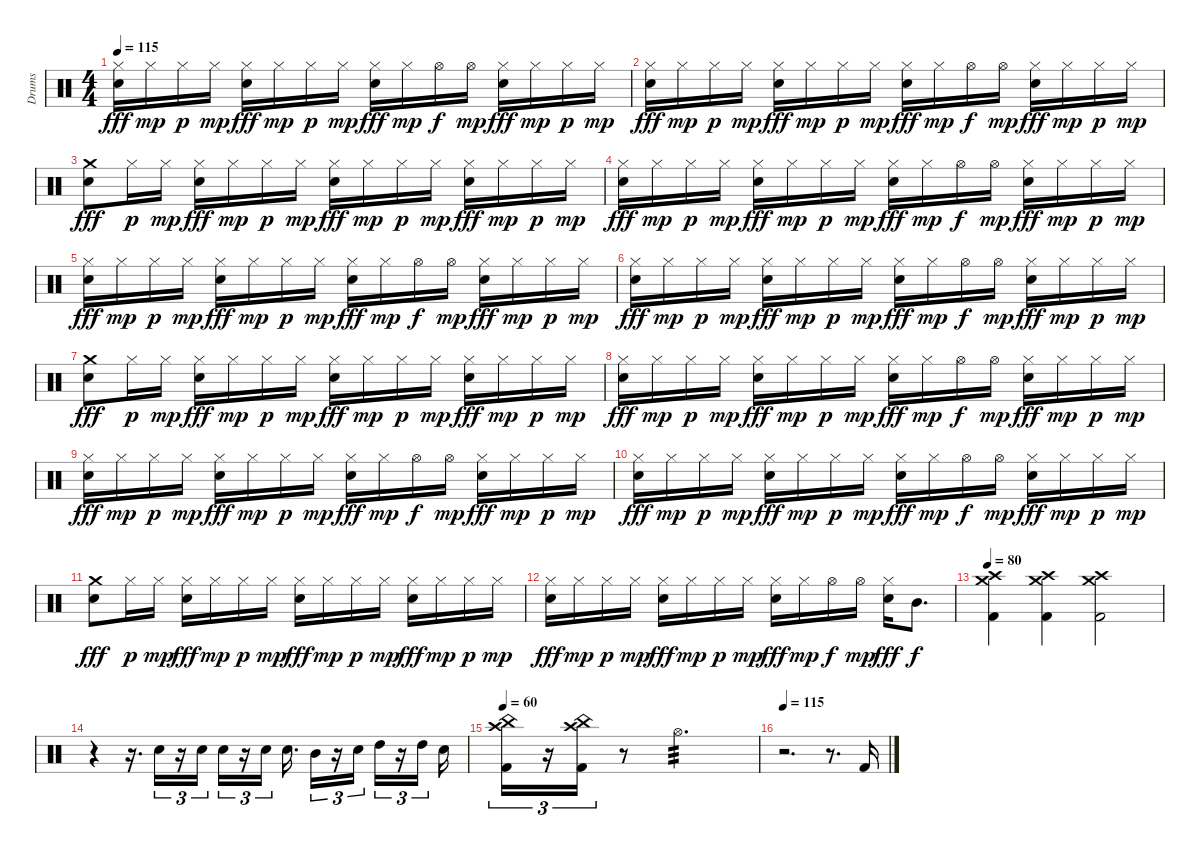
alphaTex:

\track ("Drums" "Drums") {instrument percussion}
\staff {score}
\articulation defaults
\ts (4 4)
\tempo 115
\clef neutral
\ks c
("Hi-Hat (closed)" "Electric Snare (hit)").16{dy fff} "Hi-Hat (closed)".16{dy mp} "Hi-Hat (closed)".16{dy p} "Hi-Hat (closed)".16{dy mp} ("Hi-Hat (closed)" "Electric Snare (hit)").16{dy fff} "Hi-Hat (closed)".16{dy mp} "Hi-Hat (closed)".16{dy p} "Hi-Hat (closed)".16{dy mp} ("Hi-Hat (closed)" "Electric Snare (hit)").16{dy fff} "Hi-Hat (closed)".16{dy mp} "Hi-Hat (open)".16{dy f} "Hi-Hat (open)".16{dy mp} ("Hi-Hat (closed)" "Electric Snare (hit)").16{dy fff} "Hi-Hat (closed)".16{dy mp} "Hi-Hat (closed)".16{dy p} "Hi-Hat (closed)".16{dy mp} |
("Hi-Hat (closed)" "Electric Snare (hit)").16{dy fff} "Hi-Hat (closed)".16{dy mp} "Hi-Hat (closed)".16{dy p} "Hi-Hat (closed)".16{dy mp} ("Hi-Hat (closed)" "Electric Snare (hit)").16{dy fff} "Hi-Hat (closed)".16{dy mp} "Hi-Hat (closed)".16{dy p} "Hi-Hat (closed)".16{dy mp} ("Hi-Hat (closed)" "Electric Snare (hit)").16{dy fff} "Hi-Hat (closed)".16{dy mp} "Hi-Hat (open)".16{dy f} "Hi-Hat (open)".16{dy mp} ("Hi-Hat (closed)" "Electric Snare (hit)").16{dy fff} "Hi-Hat (closed)".16{dy mp} "Hi-Hat (closed)".16{dy p} "Hi-Hat (closed)".16{dy mp} |
("Crash medium (hit)" "Electric Snare (hit)").8{dy fff} "Hi-Hat (closed)".16{dy p} "Hi-Hat (closed)".16{dy mp} ("Hi-Hat (closed)" "Electric Snare (hit)").16{dy fff} "Hi-Hat (closed)".16{dy mp} "Hi-Hat (closed)".16{dy p} "Hi-Hat (closed)".16{dy mp} ("Hi-Hat (closed)" "Electric Snare (hit)").16{dy fff} "Hi-Hat (closed)".16{dy mp} "Hi-Hat (closed)".16{dy p} "Hi-Hat (closed)".16{dy mp} ("Hi-Hat (closed)" "Electric Snare (hit)").16{dy fff} "Hi-Hat (closed)".16{dy mp} "Hi-Hat (closed)".16{dy p} "Hi-Hat (closed)".16{dy mp} |
("Hi-Hat (closed)" "Electric Snare (hit)").16{dy fff} "Hi-Hat (closed)".16{dy mp} "Hi-Hat (closed)".16{dy p} "Hi-Hat (closed)".16{dy mp} ("Hi-Hat (closed)" "Electric Snare (hit)").16{dy fff} "Hi-Hat (closed)".16{dy mp} "Hi-Hat (closed)".16{dy p} "Hi-Hat (closed)".16{dy mp} ("Hi-Hat (closed)" "Electric Snare (hit)").16{dy fff} "Hi-Hat (closed)".16{dy mp} "Hi-Hat (open)".16{dy f} "Hi-Hat (open)".16{dy mp} ("Hi-Hat (closed)" "Electric Snare (hit)").16{dy fff} "Hi-Hat (closed)".16{dy mp} "Hi-Hat (closed)".16{dy p} "Hi-Hat (closed)".16{dy mp} |
("Hi-Hat (closed)" "Electric Snare (hit)").16{dy fff} "Hi-Hat (closed)".16{dy mp} "Hi-Hat (closed)".16{dy p} "Hi-Hat (closed)".16{dy mp} ("Hi-Hat (closed)" "Electric Snare (hit)").16{dy fff} "Hi-Hat (closed)".16{dy mp} "Hi-Hat (closed)".16{dy p} "Hi-Hat (closed)".16{dy mp} ("Hi-Hat (closed)" "Electric Snare (hit)").16{dy fff} "Hi-Hat (closed)".16{dy mp} "Hi-Hat (open)".16{dy f} "Hi-Hat (open)".16{dy mp} ("Hi-Hat (closed)" "Electric Snare (hit)").16{dy fff} "Hi-Hat (closed)".16{dy mp} "Hi-Hat (closed)".16{dy p} "Hi-Hat (closed)".16{dy mp} |
("Hi-Hat (closed)" "Electric Snare (hit)").16{dy fff} "Hi-Hat (closed)".16{dy mp} "Hi-Hat (closed)".16{dy p} "Hi-Hat (closed)".16{dy mp} ("Hi-Hat (closed)" "Electric Snare (hit)").16{dy fff} "Hi-Hat (closed)".16{dy mp} "Hi-Hat (closed)".16{dy p} "Hi-Hat (closed)".16{dy mp} ("Hi-Hat (closed)" "Electric Snare (hit)").16{dy fff} "Hi-Hat (closed)".16{dy mp} "Hi-Hat (open)".16{dy f} "Hi-Hat (open)".16{dy mp} ("Hi-Hat (closed)" "Electric Snare (hit)").16{dy fff} "Hi-Hat (closed)".16{dy mp} "Hi-Hat (closed)".16{dy p} "Hi-Hat (closed)".16{dy mp} |
("Crash medium (hit)" "Electric Snare (hit)").8{dy fff} "Hi-Hat (closed)".16{dy p} "Hi-Hat (closed)".16{dy mp} ("Hi-Hat (closed)" "Electric Snare (hit)").16{dy fff} "Hi-Hat (closed)".16{dy mp} "Hi-Hat (closed)".16{dy p} "Hi-Hat (closed)".16{dy mp} ("Hi-Hat (closed)" "Electric Snare (hit)").16{dy fff} "Hi-Hat (closed)".16{dy mp} "Hi-Hat (closed)".16{dy p} "Hi-Hat (closed)".16{dy mp} ("Hi-Hat (closed)" "Electric Snare (hit)").16{dy fff} "Hi-Hat (closed)".16{dy mp} "Hi-Hat (closed)".16{dy p} "Hi-Hat (closed)".16{dy mp} |
("Hi-Hat (closed)" "Electric Snare (hit)").16{dy fff} "Hi-Hat (closed)".16{dy mp} "Hi-Hat (closed)".16{dy p} "Hi-Hat (closed)".16{dy mp} ("Hi-Hat (closed)" "Electric Snare (hit)").16{dy fff} "Hi-Hat (closed)".16{dy mp} "Hi-Hat (closed)".16{dy p} "Hi-Hat (closed)".16{dy mp} ("Hi-Hat (closed)" "Electric Snare (hit)").16{dy fff} "Hi-Hat (closed)".16{dy mp} "Hi-Hat (open)".16{dy f} "Hi-Hat (open)".16{dy mp} ("Hi-Hat (closed)" "Electric Snare (hit)").16{dy fff} "Hi-Hat (closed)".16{dy mp} "Hi-Hat (closed)".16{dy p} "Hi-Hat (closed)".16{dy mp} |
("Hi-Hat (closed)" "Electric Snare (hit)").16{dy fff} "Hi-Hat (closed)".16{dy mp} "Hi-Hat (closed)".16{dy p} "Hi-Hat (closed)".16{dy mp} ("Hi-Hat (closed)" "Electric Snare (hit)").16{dy fff} "Hi-Hat (closed)".16{dy mp} "Hi-Hat (closed)".16{dy p} "Hi-Hat (closed)".16{dy mp} ("Hi-Hat (closed)" "Electric Snare (hit)").16{dy fff} "Hi-Hat (closed)".16{dy mp} "Hi-Hat (open)".16{dy f} "Hi-Hat (open)".16{dy mp} ("Hi-Hat (closed)" "Electric Snare (hit)").16{dy fff} "Hi-Hat (closed)".16{dy mp} "Hi-Hat (closed)".16{dy p} "Hi-Hat (closed)".16{dy mp} |
("Hi-Hat (closed)" "Electric Snare (hit)").16{dy fff} "Hi-Hat (closed)".16{dy mp} "Hi-Hat (closed)".16{dy p} "Hi-Hat (closed)".16{dy mp} ("Hi-Hat (closed)" "Electric Snare (hit)").16{dy fff} "Hi-Hat (closed)".16{dy mp} "Hi-Hat (closed)".16{dy p} "Hi-Hat (closed)".16{dy mp} ("Hi-Hat (closed)" "Electric Snare (hit)").16{dy fff} "Hi-Hat (closed)".16{dy mp} "Hi-Hat (open)".16{dy f} "Hi-Hat (open)".16{dy mp} ("Hi-Hat (closed)" "Electric Snare (hit)").16{dy fff} "Hi-Hat (closed)".16{dy mp} "Hi-Hat (closed)".16{dy p} "Hi-Hat (closed)".16{dy mp} |
("Crash medium (hit)" "Electric Snare (hit)").8{dy fff} "Hi-Hat (closed)".16{dy p} "Hi-Hat (closed)".16{dy mp} ("Hi-Hat (closed)" "Electric Snare (hit)").16{dy fff} "Hi-Hat (closed)".16{dy mp} "Hi-Hat (closed)".16{dy p} "Hi-Hat (closed)".16{dy mp} ("Hi-Hat (closed)" "Electric Snare (hit)").16{dy fff} "Hi-Hat (closed)".16{dy mp} "Hi-Hat (closed)".16{dy p} "Hi-Hat (closed)".16{dy mp} ("Hi-Hat (closed)" "Electric Snare (hit)").16{dy fff} "Hi-Hat (closed)".16{dy mp} "Hi-Hat (closed)".16{dy p} "Hi-Hat (closed)".16{dy mp} |
("Hi-Hat (closed)" "Electric Snare (hit)").16{dy fff} "Hi-Hat (closed)".16{dy mp} "Hi-Hat (closed)".16{dy p} "Hi-Hat (closed)".16{dy mp} ("Hi-Hat (closed)" "Electric Snare (hit)").16{dy fff} "Hi-Hat (closed)".16{dy mp} "Hi-Hat (closed)".16{dy p} "Hi-Hat (closed)".16{dy mp} ("Hi-Hat (closed)" "Electric Snare (hit)").16{dy fff} "Hi-Hat (closed)".16{dy mp} "Hi-Hat (open)".16{dy f} "Hi-Hat (open)".16{dy mp} ("Hi-Hat (closed)" "Electric Snare (hit)").16{dy fff} "Mid Tom (hit)".8{d dy f} |
\tempo 80
("Crash high (hit)" "Crash medium (hit)" "Kick (hit) 2").4 ("Crash high (hit)" "Crash medium (hit)" "Kick (hit) 2").4 ("Crash high (hit)" "Crash medium (hit)" "Kick (hit) 2").2 |
r.4 r.16{d} "Electric Snare (hit)".16{tu (3 2)} r.16{tu (3 2)} "Electric Snare (hit)".16{tu (3 2)} "Electric Snare (hit)".16{tu (3 2)} r.16{tu (3 2)} "Electric Snare (hit)".16{tu (3 2) beam splitsecondary} "Electric Snare (hit)".16{d} "Mid Tom (hit)".16{tu (3 2)} r.16{tu (3 2)} "Electric Snare (hit)".16{tu (3 2)} "High Tom (hit)".16{tu (3 2)} r.16{tu (3 2)} "High Tom (hit)".16{tu (3 2)} "Electric Snare (hit)".16 |
\tempo 60
("Crash high (hit)" "China (hit)" "Kick (hit) 2").16{tu (3 2)} r.16{tu (3 2)} ("Crash high (hit)" "China (hit)" "Kick (hit) 2").16{tu (3 2)} r.8 "Hi-Hat (open)".2{d tp 3} |
\tempo 115
r.2{d} r.8{d} "Kick (hit) 2".16
